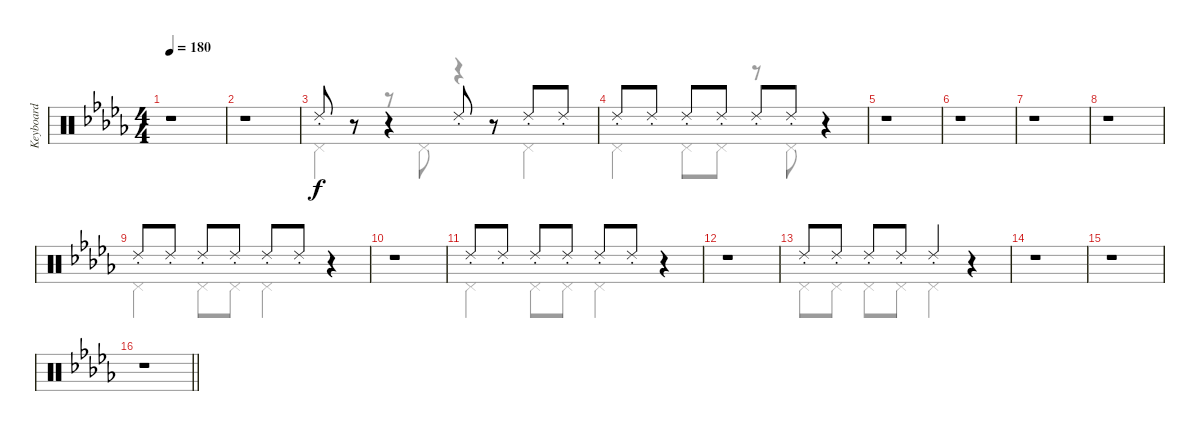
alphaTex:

\track ("Keyboard" "Keyboard") {instrument percussion}
\staff {score}
\articulation defaults
\voice
\ts (4 4)
\tempo 180
\clef neutral
\ks db
r.1{dy f} |
r.1 |
"Ride (choke) 2".8 r.8 r.4 "Ride (choke) 2".8 r.8 "Ride (choke) 2".8 "Ride (choke) 2".8 |
"Ride (choke) 2".8 "Ride (choke) 2".8 "Ride (choke) 2".8 "Ride (choke) 2".8 "Ride (choke) 2".8 "Ride (choke) 2".8 r.4 |
r.1 |
r.1 |
r.1 |
r.1 |
"Ride (choke) 2".8 "Ride (choke) 2".8 "Ride (choke) 2".8 "Ride (choke) 2".8 "Ride (choke) 2".8 "Ride (choke) 2".8 r.4 |
r.1 |
"Ride (choke) 2".8 "Ride (choke) 2".8 "Ride (choke) 2".8 "Ride (choke) 2".8 "Ride (choke) 2".8 "Ride (choke) 2".8 r.4 |
r.1 |
"Ride (choke) 2".8 "Ride (choke) 2".8 "Ride (choke) 2".8 "Ride (choke) 2".8 "Ride (choke) 2".4 r.4 |
r.1 |
r.1 |
\barLineRight lightlight
r.1
\voice
\clef neutral
\ottava regular
\simile none
\ks db
|
|
"Pedal Hi-Hat (hit)".4 r.8 "Pedal Hi-Hat (hit)".8 r.4 "Pedal Hi-Hat (hit)".4 |
"Pedal Hi-Hat (hit)".4 "Pedal Hi-Hat (hit)".8 "Pedal Hi-Hat (hit)".8 r.8 "Pedal Hi-Hat (hit)".8 r.4 |
|
|
|
|
"Pedal Hi-Hat (hit)".4 "Pedal Hi-Hat (hit)".8 "Pedal Hi-Hat (hit)".8 "Pedal Hi-Hat (hit)".4 r.4 |
|
"Pedal Hi-Hat (hit)".4 "Pedal Hi-Hat (hit)".8 "Pedal Hi-Hat (hit)".8 "Pedal Hi-Hat (hit)".4 r.4 |
|
"Pedal Hi-Hat (hit)".8 "Pedal Hi-Hat (hit)".8 "Pedal Hi-Hat (hit)".8 "Pedal Hi-Hat (hit)".8 "Pedal Hi-Hat (hit)".4 r.4 |
|
|
\barLineRight lightlight
